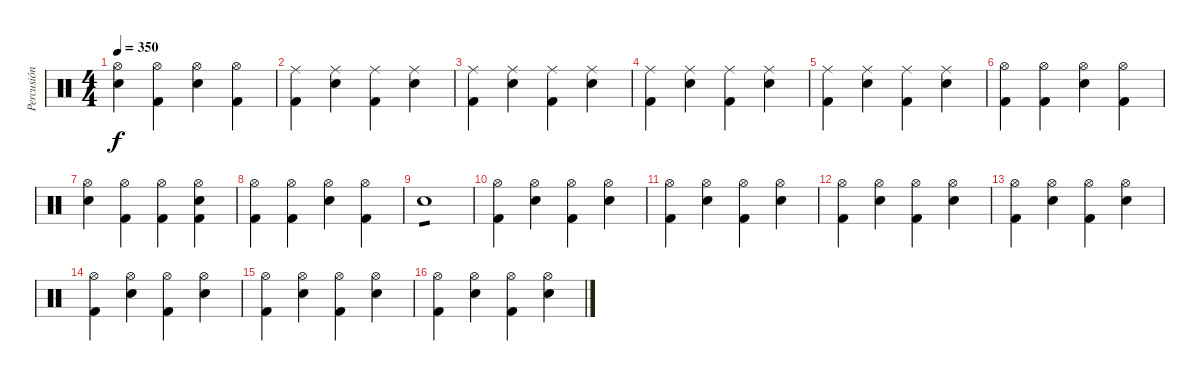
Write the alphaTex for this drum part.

\track ("Percusión" "Percusión") {instrument percussion}
\staff {score}
\articulation defaults
\ts (4 4)
\tempo 350
\clef neutral
\ks c
("Hi-Hat (open)" "Electric Snare (hit)").4{dy f} ("Hi-Hat (open)" "Kick (hit) 2").4 ("Hi-Hat (open)" "Electric Snare (hit)").4 ("Hi-Hat (open)" "Kick (hit) 2").4 |
("Ride (middle)" "Kick (hit) 2").4 ("Ride (middle)" "Electric Snare (hit)").4 ("Ride (middle)" "Kick (hit) 2").4 ("Ride (middle)" "Electric Snare (hit)").4 |
("Ride (middle)" "Kick (hit) 2").4 ("Ride (middle)" "Electric Snare (hit)").4 ("Ride (middle)" "Kick (hit) 2").4 ("Ride (middle)" "Electric Snare (hit)").4 |
("Ride (middle)" "Kick (hit) 2").4 ("Ride (middle)" "Electric Snare (hit)").4 ("Ride (middle)" "Kick (hit) 2").4 ("Ride (middle)" "Electric Snare (hit)").4 |
("Ride (middle)" "Kick (hit) 2").4 ("Ride (middle)" "Electric Snare (hit)").4 ("Ride (middle)" "Kick (hit) 2").4 ("Ride (middle)" "Electric Snare (hit)").4 |
("Hi-Hat (open)" "Kick (hit) 2").4 ("Hi-Hat (open)" "Kick (hit) 2").4 ("Hi-Hat (open)" "Electric Snare (hit)").4 ("Hi-Hat (open)" "Kick (hit) 2").4 |
("Hi-Hat (open)" "Electric Snare (hit)").4 ("Hi-Hat (open)" "Kick (hit) 2").4 ("Hi-Hat (open)" "Kick (hit) 2").4 ("Hi-Hat (open)" "Electric Snare (hit)" "Kick (hit) 2").4 |
("Hi-Hat (open)" "Kick (hit) 2").4 ("Hi-Hat (open)" "Kick (hit) 2").4 ("Hi-Hat (open)" "Electric Snare (hit)").4 ("Hi-Hat (open)" "Kick (hit) 2").4 |
"Electric Snare (hit)".1{tp 1} |
("Hi-Hat (open)" "Kick (hit) 2").4 ("Hi-Hat (open)" "Electric Snare (hit)").4 ("Hi-Hat (open)" "Kick (hit) 2").4 ("Hi-Hat (open)" "Electric Snare (hit)").4 |
("Hi-Hat (open)" "Kick (hit) 2").4 ("Hi-Hat (open)" "Electric Snare (hit)").4 ("Hi-Hat (open)" "Kick (hit) 2").4 ("Hi-Hat (open)" "Electric Snare (hit)").4 |
("Hi-Hat (open)" "Kick (hit) 2").4 ("Hi-Hat (open)" "Electric Snare (hit)").4 ("Hi-Hat (open)" "Kick (hit) 2").4 ("Hi-Hat (open)" "Electric Snare (hit)").4 |
("Hi-Hat (open)" "Kick (hit) 2").4 ("Hi-Hat (open)" "Electric Snare (hit)").4 ("Hi-Hat (open)" "Kick (hit) 2").4 ("Hi-Hat (open)" "Electric Snare (hit)").4 |
("Hi-Hat (open)" "Kick (hit) 2").4 ("Hi-Hat (open)" "Electric Snare (hit)").4 ("Hi-Hat (open)" "Kick (hit) 2").4 ("Hi-Hat (open)" "Electric Snare (hit)").4 |
("Hi-Hat (open)" "Kick (hit) 2").4 ("Hi-Hat (open)" "Electric Snare (hit)").4 ("Hi-Hat (open)" "Kick (hit) 2").4 ("Hi-Hat (open)" "Electric Snare (hit)").4 |
("Hi-Hat (open)" "Kick (hit) 2").4 ("Hi-Hat (open)" "Electric Snare (hit)").4 ("Hi-Hat (open)" "Kick (hit) 2").4 ("Hi-Hat (open)" "Electric Snare (hit)").4
